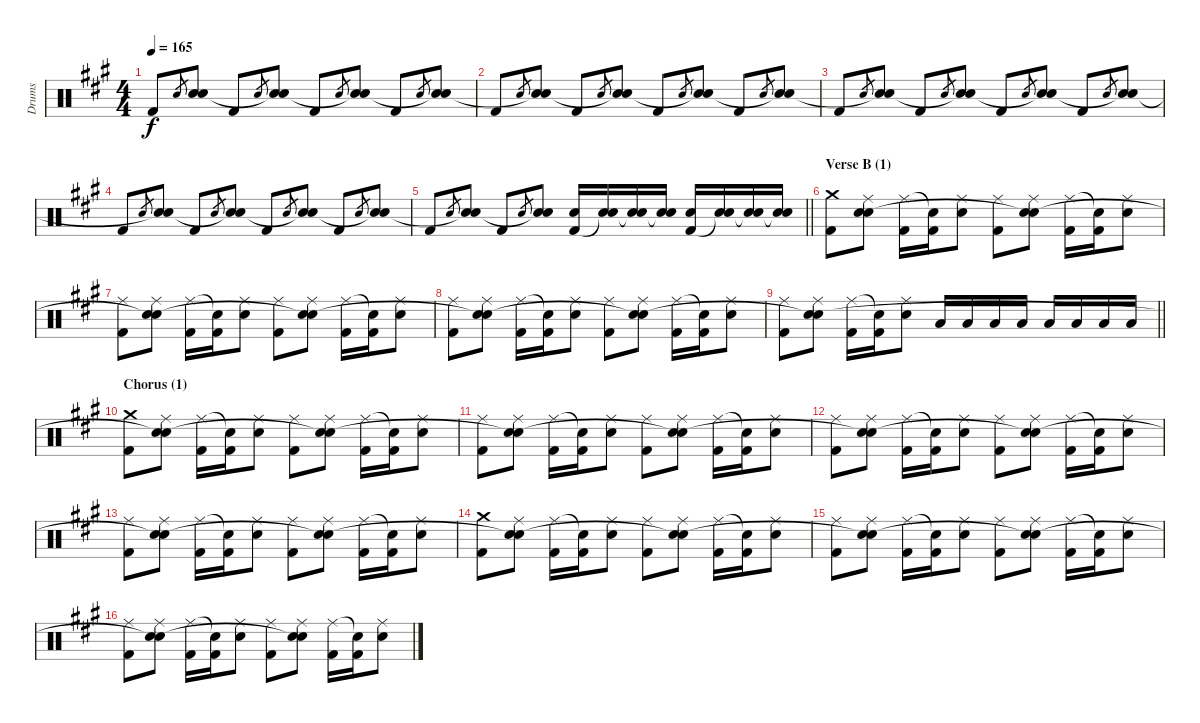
\track ("Drums" "Drums") {instrument percussion}
\staff {score}
\articulation defaults
\ts (4 4)
\tempo 165
\clef neutral
\ks f#minor "Kick (hit) 2".8{dy f} "Electric Snare (hit)".8{gr}
("Electric Snare (hit)" "Snare (hit)"{t}).8 "Kick (hit) 2".8 "Electric Snare (hit)".8{gr} ("Electric Snare (hit)" "Snare (hit)"{t}).8 "Kick (hit) 2".8 "Electric Snare (hit)".8{gr} ("Electric Snare (hit)" "Snare (hit)"{t}).8 "Kick (hit) 2".8 "Electric Snare (hit)".8{gr} ("Electric Snare (hit)" "Snare (hit)"{t}).8 |
"Kick (hit) 2".8 "Electric Snare (hit)".8{gr} ("Electric Snare (hit)" "Snare (hit)"{t}).8 "Kick (hit) 2".8 "Electric Snare (hit)".8{gr} ("Electric Snare (hit)" "Snare (hit)"{t}).8 "Kick (hit) 2".8 "Electric Snare (hit)".8{gr} ("Electric Snare (hit)" "Snare (hit)"{t}).8 "Kick (hit) 2".8 "Electric Snare (hit)".8{gr} ("Electric Snare (hit)" "Snare (hit)"{t}).8 |
"Kick (hit) 2".8 "Electric Snare (hit)".8{gr} ("Electric Snare (hit)" "Snare (hit)"{t}).8 "Kick (hit) 2".8 "Electric Snare (hit)".8{gr} ("Electric Snare (hit)" "Snare (hit)"{t}).8 "Kick (hit) 2".8 "Electric Snare (hit)".8{gr} ("Electric Snare (hit)" "Snare (hit)"{t}).8 "Kick (hit) 2".8 "Electric Snare (hit)".8{gr} ("Electric Snare (hit)" "Snare (hit)"{t}).8 |
"Kick (hit) 2".8 "Electric Snare (hit)".8{gr} ("Electric Snare (hit)" "Snare (hit)"{t}).8 "Kick (hit) 2".8 "Electric Snare (hit)".8{gr} ("Electric Snare (hit)" "Snare (hit)"{t}).8 "Kick (hit) 2".8 "Electric Snare (hit)".8{gr} ("Electric Snare (hit)" "Snare (hit)"{t}).8 "Kick (hit) 2".8 "Electric Snare (hit)".8{gr} ("Electric Snare (hit)" "Snare (hit)"{t}).8 |
\barLineRight lightlight "Kick (hit) 2".8 "Electric Snare (hit)".8{gr}
("Electric Snare (hit)" "Snare (hit)"{t}).8 "Kick (hit) 2".8 "Electric Snare (hit)".8{gr} ("Electric Snare (hit)" "Snare (hit)"{t}).8 ("Electric Snare (hit)" "Kick (hit) 2").16 ("Electric Snare (hit)" "Snare (hit)"{t}).16 ("Electric Snare (hit)" "Snare (hit)"{t}).16 ("Electric Snare (hit)" "Snare (hit)"{t}).16 ("Electric Snare (hit)" "Kick (hit) 2").16 ("Electric Snare (hit)" "Snare (hit)"{t}).16 ("Electric Snare (hit)" "Snare (hit)"{t}).16 ("Electric Snare (hit)" "Snare (hit)"{t}).16 |
\section ("" "Verse B (1)")
("Crash medium (hit)" "Kick (hit) 2").8 ("Ride (middle)" "Electric Snare (hit)" "Snare (hit)").8 ("Ride (middle)" "Kick (hit) 2").16 ("Snare (hit)"{t} "Kick (hit) 2").16 ("Ride (middle)" "Electric Snare (hit)").8 ("Ride (middle)" "Kick (hit) 2").8 ("Ride (middle)" "Electric Snare (hit)" "Snare (hit)"{t}).8 ("Ride (middle)" "Kick (hit) 2").16 ("Snare (hit)"{t} "Kick (hit) 2").16 ("Ride (middle)" "Electric Snare (hit)").8 |
("Ride (middle)" "Kick (hit) 2").8 ("Ride (middle)" "Electric Snare (hit)" "Snare (hit)"{t}).8 ("Ride (middle)" "Kick (hit) 2").16 ("Snare (hit)"{t} "Kick (hit) 2").16 ("Ride (middle)" "Electric Snare (hit)").8 ("Ride (middle)" "Kick (hit) 2").8 ("Ride (middle)" "Electric Snare (hit)" "Snare (hit)"{t}).8 ("Ride (middle)" "Kick (hit) 2").16 ("Snare (hit)"{t} "Kick (hit) 2").16 ("Ride (middle)" "Electric Snare (hit)").8 |
("Ride (middle)" "Kick (hit) 2").8 ("Ride (middle)" "Electric Snare (hit)" "Snare (hit)"{t}).8 ("Ride (middle)" "Kick (hit) 2").16 ("Snare (hit)"{t} "Kick (hit) 2").16 ("Ride (middle)" "Electric Snare (hit)").8 ("Ride (middle)" "Kick (hit) 2").8 ("Ride (middle)" "Electric Snare (hit)" "Snare (hit)"{t}).8 ("Ride (middle)" "Kick (hit) 2").16 ("Snare (hit)"{t} "Kick (hit) 2").16 ("Ride (middle)" "Electric Snare (hit)").8 |
\barLineRight lightlight
("Ride (middle)" "Kick (hit) 2").8 ("Ride (middle)" "Electric Snare (hit)" "Snare (hit)"{t}).8 ("Ride (middle)" "Kick (hit) 2").16 ("Snare (hit)"{t} "Kick (hit) 2").16 ("Ride (middle)" "Electric Snare (hit)").8 "Low Tom (hit)".16 "Low Tom (hit)".16 "Low Tom (hit)".16 "Low Tom (hit)".16 "Low Floor Tom (hit)".16 "Low Floor Tom (hit)".16 "Low Floor Tom (hit)".16 "Low Floor Tom (hit)".16 |
\section ("" "Chorus (1)")
("Crash medium (hit)" "Kick (hit) 2").8 ("Ride (middle)" "Electric Snare (hit)" "Snare (hit)"{t}).8 ("Ride (middle)" "Kick (hit) 2").16 ("Snare (hit)"{t} "Kick (hit) 2").16 ("Ride (middle)" "Electric Snare (hit)").8 ("Ride (middle)" "Kick (hit) 2").8 ("Ride (middle)" "Electric Snare (hit)" "Snare (hit)"{t}).8 ("Ride (middle)" "Kick (hit) 2").16 ("Snare (hit)"{t} "Kick (hit) 2").16 ("Ride (middle)" "Electric Snare (hit)").8 |
("Ride (middle)" "Kick (hit) 2").8 ("Ride (middle)" "Electric Snare (hit)" "Snare (hit)"{t}).8 ("Ride (middle)" "Kick (hit) 2").16 ("Snare (hit)"{t} "Kick (hit) 2").16 ("Ride (middle)" "Electric Snare (hit)").8 ("Ride (middle)" "Kick (hit) 2").8 ("Ride (middle)" "Electric Snare (hit)" "Snare (hit)"{t}).8 ("Ride (middle)" "Kick (hit) 2").16 ("Snare (hit)"{t} "Kick (hit) 2").16 ("Ride (middle)" "Electric Snare (hit)").8 |
("Ride (middle)" "Kick (hit) 2").8 ("Ride (middle)" "Electric Snare (hit)" "Snare (hit)"{t}).8 ("Ride (middle)" "Kick (hit) 2").16 ("Snare (hit)"{t} "Kick (hit) 2").16 ("Ride (middle)" "Electric Snare (hit)").8 ("Ride (middle)" "Kick (hit) 2").8 ("Ride (middle)" "Electric Snare (hit)" "Snare (hit)"{t}).8 ("Ride (middle)" "Kick (hit) 2").16 ("Snare (hit)"{t} "Kick (hit) 2").16 ("Ride (middle)" "Electric Snare (hit)").8 |
("Ride (middle)" "Kick (hit) 2").8 ("Ride (middle)" "Electric Snare (hit)" "Snare (hit)"{t}).8 ("Ride (middle)" "Kick (hit) 2").16 ("Snare (hit)"{t} "Kick (hit) 2").16 ("Ride (middle)" "Electric Snare (hit)").8 ("Ride (middle)" "Kick (hit) 2").8 ("Ride (middle)" "Electric Snare (hit)" "Snare (hit)"{t}).8 ("Ride (middle)" "Kick (hit) 2").16 ("Snare (hit)"{t} "Kick (hit) 2").16 ("Ride (middle)" "Electric Snare (hit)").8 |
("Crash medium (hit)" "Kick (hit) 2").8 ("Ride (middle)" "Electric Snare (hit)" "Snare (hit)"{t}).8 ("Ride (middle)" "Kick (hit) 2").16 ("Snare (hit)"{t} "Kick (hit) 2").16 ("Ride (middle)" "Electric Snare (hit)").8 ("Ride (middle)" "Kick (hit) 2").8 ("Ride (middle)" "Electric Snare (hit)" "Snare (hit)"{t}).8 ("Ride (middle)" "Kick (hit) 2").16 ("Snare (hit)"{t} "Kick (hit) 2").16 ("Ride (middle)" "Electric Snare (hit)").8 |
("Ride (middle)" "Kick (hit) 2").8 ("Ride (middle)" "Electric Snare (hit)" "Snare (hit)"{t}).8 ("Ride (middle)" "Kick (hit) 2").16 ("Snare (hit)"{t} "Kick (hit) 2").16 ("Ride (middle)" "Electric Snare (hit)").8 ("Ride (middle)" "Kick (hit) 2").8 ("Ride (middle)" "Electric Snare (hit)" "Snare (hit)"{t}).8 ("Ride (middle)" "Kick (hit) 2").16 ("Snare (hit)"{t} "Kick (hit) 2").16 ("Ride (middle)" "Electric Snare (hit)").8 |
("Ride (middle)" "Kick (hit) 2").8 ("Ride (middle)" "Electric Snare (hit)" "Snare (hit)"{t}).8 ("Ride (middle)" "Kick (hit) 2").16 ("Snare (hit)"{t} "Kick (hit) 2").16 ("Ride (middle)" "Electric Snare (hit)").8 ("Ride (middle)" "Kick (hit) 2").8 ("Ride (middle)" "Electric Snare (hit)" "Snare (hit)"{t}).8 ("Ride (middle)" "Kick (hit) 2").16 ("Snare (hit)"{t} "Kick (hit) 2").16 ("Ride (middle)" "Electric Snare (hit)").8
